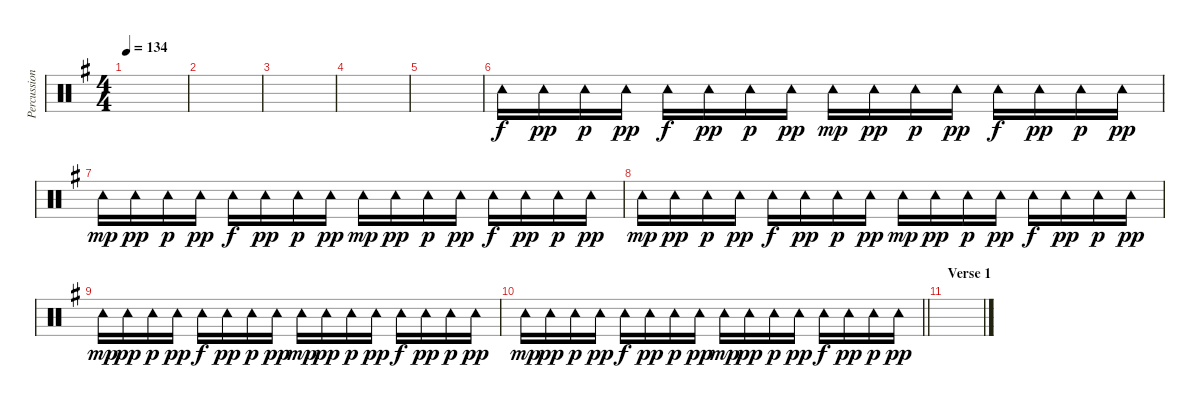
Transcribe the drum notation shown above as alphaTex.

\track ("Percussion" "Percussion") {instrument percussion}
\staff {score}
\articulation defaults
\ts (4 4)
\tempo 134
\clef neutral
\ks eminor
|
|
|
|
|
"Tambourine (hit)".16 "Tambourine (hit)".16{dy pp} "Tambourine (hit)".16{dy p} "Tambourine (hit)".16{dy pp} "Tambourine (hit)".16{dy f} "Tambourine (hit)".16{dy pp} "Tambourine (hit)".16{dy p} "Tambourine (hit)".16{dy pp} "Tambourine (hit)".16{dy mp} "Tambourine (hit)".16{dy pp} "Tambourine (hit)".16{dy p} "Tambourine (hit)".16{dy pp} "Tambourine (hit)".16{dy f} "Tambourine (hit)".16{dy pp} "Tambourine (hit)".16{dy p} "Tambourine (hit)".16{dy pp} |
"Tambourine (hit)".16{dy mp} "Tambourine (hit)".16{dy pp} "Tambourine (hit)".16{dy p} "Tambourine (hit)".16{dy pp} "Tambourine (hit)".16{dy f} "Tambourine (hit)".16{dy pp} "Tambourine (hit)".16{dy p} "Tambourine (hit)".16{dy pp} "Tambourine (hit)".16{dy mp} "Tambourine (hit)".16{dy pp} "Tambourine (hit)".16{dy p} "Tambourine (hit)".16{dy pp} "Tambourine (hit)".16{dy f} "Tambourine (hit)".16{dy pp} "Tambourine (hit)".16{dy p} "Tambourine (hit)".16{dy pp} |
"Tambourine (hit)".16{dy mp} "Tambourine (hit)".16{dy pp} "Tambourine (hit)".16{dy p} "Tambourine (hit)".16{dy pp} "Tambourine (hit)".16{dy f} "Tambourine (hit)".16{dy pp} "Tambourine (hit)".16{dy p} "Tambourine (hit)".16{dy pp} "Tambourine (hit)".16{dy mp} "Tambourine (hit)".16{dy pp} "Tambourine (hit)".16{dy p} "Tambourine (hit)".16{dy pp} "Tambourine (hit)".16{dy f} "Tambourine (hit)".16{dy pp} "Tambourine (hit)".16{dy p} "Tambourine (hit)".16{dy pp} |
"Tambourine (hit)".16{dy mp} "Tambourine (hit)".16{dy pp} "Tambourine (hit)".16{dy p} "Tambourine (hit)".16{dy pp} "Tambourine (hit)".16{dy f} "Tambourine (hit)".16{dy pp} "Tambourine (hit)".16{dy p} "Tambourine (hit)".16{dy pp} "Tambourine (hit)".16{dy mp} "Tambourine (hit)".16{dy pp} "Tambourine (hit)".16{dy p} "Tambourine (hit)".16{dy pp} "Tambourine (hit)".16{dy f} "Tambourine (hit)".16{dy pp} "Tambourine (hit)".16{dy p} "Tambourine (hit)".16{dy pp} |
\barLineRight lightlight "Tambourine (hit)".16{dy mp} "Tambourine (hit)".16{dy pp} "Tambourine (hit)".16{dy p} "Tambourine (hit)".16{dy pp} "Tambourine (hit)".16{dy f} "Tambourine (hit)".16{dy pp} "Tambourine (hit)".16{dy p} "Tambourine (hit)".16{dy pp} "Tambourine (hit)".16{dy mp} "Tambourine (hit)".16{dy pp} "Tambourine (hit)".16{dy p} "Tambourine (hit)".16{dy pp} "Tambourine (hit)".16{dy f} "Tambourine (hit)".16{dy pp} "Tambourine (hit)".16{dy p} "Tambourine (hit)".16{dy pp}
|
\section ("" "Verse 1")
